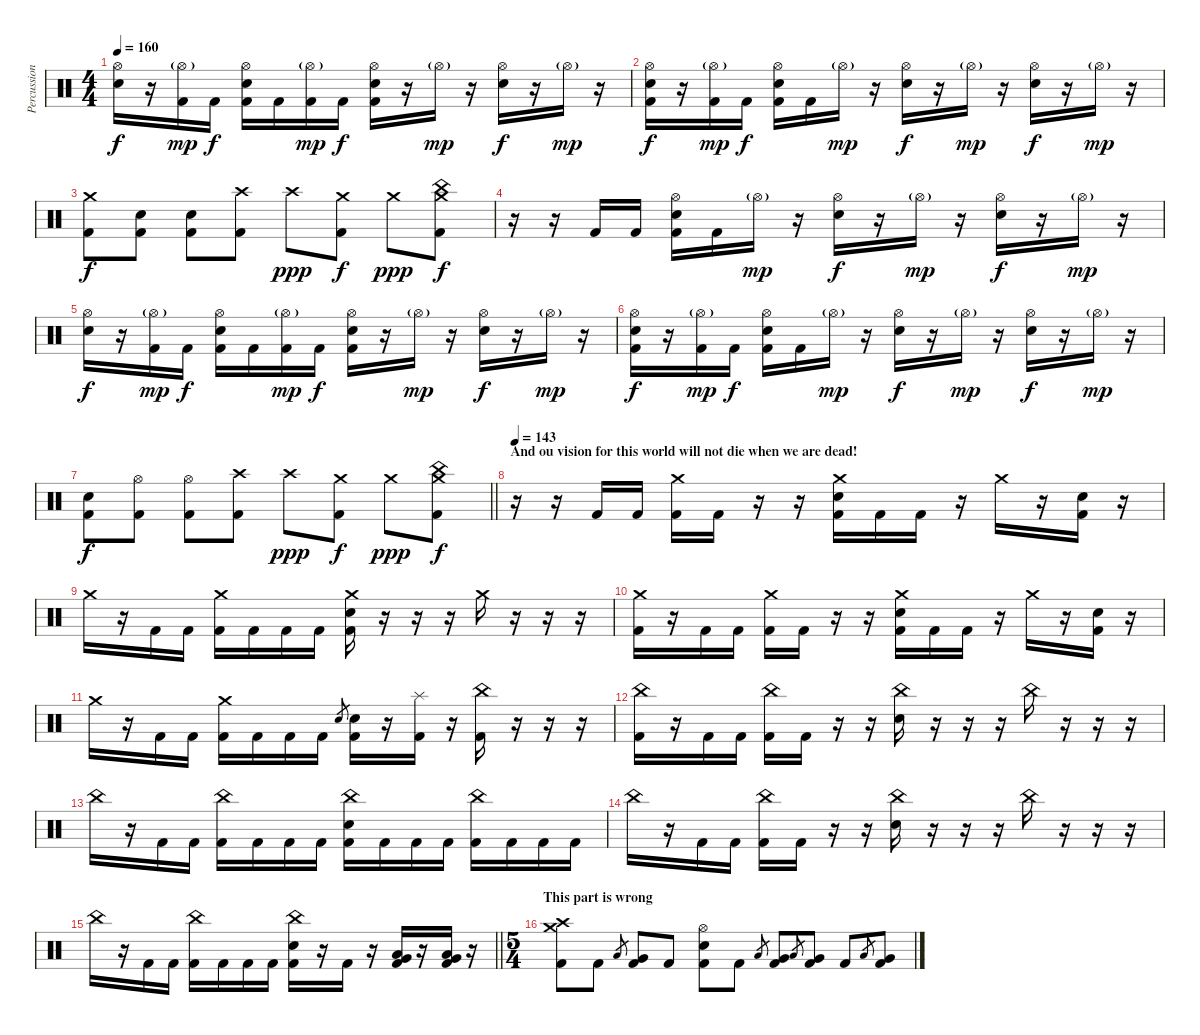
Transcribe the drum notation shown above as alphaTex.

\track ("Percussion" "Percussion") {instrument percussion}
\staff {score}
\articulation defaults
\ts (4 4)
\tempo 160
\clef neutral
\ks c
("Hi-Hat (open)" "Electric Snare (hit)").16{dy f} r.16 ("Hi-Hat (open)"{g} "Kick (hit) 2").16{dy mp} "Kick (hit) 2".16{dy f} ("Hi-Hat (open)" "Electric Snare (hit)" "Kick (hit) 2").16 "Kick (hit) 2".16 ("Hi-Hat (open)"{g} "Kick (hit) 2").16{dy mp} "Kick (hit) 2".16{dy f} ("Hi-Hat (open)" "Electric Snare (hit)" "Kick (hit) 2").16 r.16 "Hi-Hat (open)"{g}.16{dy mp} r.16 ("Hi-Hat (open)" "Electric Snare (hit)").16{dy f} r.16 "Hi-Hat (open)"{g}.16{dy mp} r.16 |
("Hi-Hat (open)" "Electric Snare (hit)" "Kick (hit) 2").16{dy f} r.16 ("Hi-Hat (open)"{g} "Kick (hit) 2").16{dy mp} "Kick (hit) 2".16{dy f} ("Hi-Hat (open)" "Electric Snare (hit)" "Kick (hit) 2").16 "Kick (hit) 2".16 "Hi-Hat (open)"{g}.16{dy mp} r.16 ("Hi-Hat (open)" "Electric Snare (hit)").16{dy f} r.16 "Hi-Hat (open)"{g}.16{dy mp} r.16 ("Hi-Hat (open)" "Electric Snare (hit)").16{dy f} r.16 "Hi-Hat (open)"{g}.16{dy mp} r.16 |
("Crash medium (hit)" "Kick (hit) 2").8{dy f} ("Electric Snare (hit)" "Kick (hit) 2").8 ("Electric Snare (hit)" "Kick (hit) 2").8 ("Crash high (hit)" "Kick (hit) 2").8 "Crash high (hit)".8{dy ppp} ("Crash medium (hit)" "Kick (hit) 2").8{dy f} "Crash medium (hit)".8{dy ppp} ("China (hit)" "Crash medium (hit)" "Kick (hit) 2").8{dy f} |
r.16 r.16 "Kick (hit) 2".16 "Kick (hit) 2".16 ("Hi-Hat (open)" "Electric Snare (hit)" "Kick (hit) 2").16 "Kick (hit) 2".16 "Hi-Hat (open)"{g}.16{dy mp} r.16 ("Hi-Hat (open)" "Electric Snare (hit)").16{dy f} r.16 "Hi-Hat (open)"{g}.16{dy mp} r.16 ("Hi-Hat (open)" "Electric Snare (hit)").16{dy f} r.16 "Hi-Hat (open)"{g}.16{dy mp} r.16 |
("Hi-Hat (open)" "Electric Snare (hit)").16{dy f} r.16 ("Hi-Hat (open)"{g} "Kick (hit) 2").16{dy mp} "Kick (hit) 2".16{dy f} ("Hi-Hat (open)" "Electric Snare (hit)" "Kick (hit) 2").16 "Kick (hit) 2".16 ("Hi-Hat (open)"{g} "Kick (hit) 2").16{dy mp} "Kick (hit) 2".16{dy f} ("Hi-Hat (open)" "Electric Snare (hit)" "Kick (hit) 2").16 r.16 "Hi-Hat (open)"{g}.16{dy mp} r.16 ("Hi-Hat (open)" "Electric Snare (hit)").16{dy f} r.16 "Hi-Hat (open)"{g}.16{dy mp} r.16 |
("Hi-Hat (open)" "Electric Snare (hit)" "Kick (hit) 2").16{dy f} r.16 ("Hi-Hat (open)"{g} "Kick (hit) 2").16{dy mp} "Kick (hit) 2".16{dy f} ("Hi-Hat (open)" "Electric Snare (hit)" "Kick (hit) 2").16 "Kick (hit) 2".16 "Hi-Hat (open)"{g}.16{dy mp} r.16 ("Hi-Hat (open)" "Electric Snare (hit)").16{dy f} r.16 "Hi-Hat (open)"{g}.16{dy mp} r.16 ("Hi-Hat (open)" "Electric Snare (hit)").16{dy f} r.16 "Hi-Hat (open)"{g}.16{dy mp} r.16 |
\barLineRight lightlight
("Electric Snare (hit)" "Kick (hit) 2").8{dy f} ("Hi-Hat (open)" "Kick (hit) 2").8 ("Hi-Hat (open)" "Kick (hit) 2").8 ("Crash high (hit)" "Kick (hit) 2").8 "Crash high (hit)".8{dy ppp} ("Crash medium (hit)" "Kick (hit) 2").8{dy f} "Crash medium (hit)".8{dy ppp} ("China (hit)" "Crash medium (hit)" "Kick (hit) 2").8{dy f} |
\section ("" "And ou vision for this world will not die when we are dead!")
\tempo 143
r.16 r.16 "Kick (hit) 2".16 "Kick (hit) 2".16 ("Crash medium (hit)" "Kick (hit) 2").16 "Kick (hit) 2".16 r.16 r.16 ("Crash medium (hit)" "Electric Snare (hit)" "Kick (hit) 2").16 "Kick (hit) 2".16 "Kick (hit) 2".16 r.16 "Crash medium (hit)".16 r.16 ("Electric Snare (hit)" "Kick (hit) 2").16 r.16 |
"Crash medium (hit)".16 r.16 "Kick (hit) 2".16 "Kick (hit) 2".16 ("Crash medium (hit)" "Kick (hit) 2").16 "Kick (hit) 2".16 "Kick (hit) 2".16 "Kick (hit) 2".16 ("Crash medium (hit)" "Electric Snare (hit)" "Kick (hit) 2").16 r.16 r.16 r.16 "Crash medium (hit)".16 r.16 r.16 r.16 |
("Crash medium (hit)" "Kick (hit) 2").16 r.16 "Kick (hit) 2".16 "Kick (hit) 2".16 ("Crash medium (hit)" "Kick (hit) 2").16 "Kick (hit) 2".16 r.16 r.16 ("Crash medium (hit)" "Electric Snare (hit)" "Kick (hit) 2").16 "Kick (hit) 2".16 "Kick (hit) 2".16 r.16 "Crash medium (hit)".16 r.16 ("Electric Snare (hit)" "Kick (hit) 2").16 r.16 |
"Crash medium (hit)".16 r.16 "Kick (hit) 2".16 "Kick (hit) 2".16 ("Crash medium (hit)" "Kick (hit) 2").16 "Kick (hit) 2".16 "Kick (hit) 2".16 "Kick (hit) 2".16 "Electric Snare (hit)".8{gr} ("Electric Snare (hit)" "Kick (hit) 2").16 r.16 ("Splash (hit)" "Kick (hit) 2").16 r.16 ("China (hit)" "Kick (hit) 2").16 r.16 r.16 r.16 |
("China (hit)" "Kick (hit) 2").16 r.16 "Kick (hit) 2".16 "Kick (hit) 2".16 ("China (hit)" "Kick (hit) 2").16 "Kick (hit) 2".16 r.16 r.16 ("China (hit)" "Electric Snare (hit)").16 r.16 r.16 r.16 "China (hit)".16 r.16 r.16 r.16 |
"China (hit)".16 r.16 "Kick (hit) 2".16 "Kick (hit) 2".16 ("China (hit)" "Kick (hit) 2").16 "Kick (hit) 2".16 "Kick (hit) 2".16 "Kick (hit) 2".16 ("China (hit)" "Electric Snare (hit)" "Kick (hit) 2").16 "Kick (hit) 2".16 "Kick (hit) 2".16 "Kick (hit) 2".16 ("China (hit)" "Kick (hit) 2").16 "Kick (hit) 2".16 "Kick (hit) 2".16 "Kick (hit) 2".16 |
"China (hit)".16 r.16 "Kick (hit) 2".16 "Kick (hit) 2".16 ("China (hit)" "Kick (hit) 2").16 "Kick (hit) 2".16 r.16 r.16 ("China (hit)" "Electric Snare (hit)").16 r.16 r.16 r.16 "China (hit)".16 r.16 r.16 r.16 |
\barLineRight lightlight "China (hit)".16
r.16 "Kick (hit) 2".16 "Kick (hit) 2".16 ("China (hit)" "Kick (hit) 2").16 "Kick (hit) 2".16 "Kick (hit) 2".16 "Kick (hit) 2".16 ("China (hit)" "Electric Snare (hit)" "Kick (hit) 2").16 r.16 "Kick (hit) 2".16 r.16 ("Low Tom (hit)" "Very Low Tom (hit)" "Kick (hit) 2").16 r.16 ("Low Tom (hit)" "Very Low Tom (hit)" "Kick (hit) 2").16 r.16 |
\ts (5 4)
\section ("" "This part is wrong")
("Crash medium (hit)" "Crash high (hit)" "Kick (hit) 2").8 "Kick (hit) 2".8 "Low Tom (hit)".8{gr} ("Very Low Tom (hit)" "Kick (hit) 2").8 "Kick (hit) 2".8 ("Hi-Hat (open)" "Electric Snare (hit)" "Kick (hit) 2").8 "Kick (hit) 2".8 "Low Tom (hit)".8{gr} ("Very Low Tom (hit)" "Kick (hit) 2").8 "Low Tom (hit)".8{gr} ("Very Low Tom (hit)" "Kick (hit) 2").8 "Kick (hit) 2".8 "Low Tom (hit)".8{gr} ("Very Low Tom (hit)" "Kick (hit) 2").8
